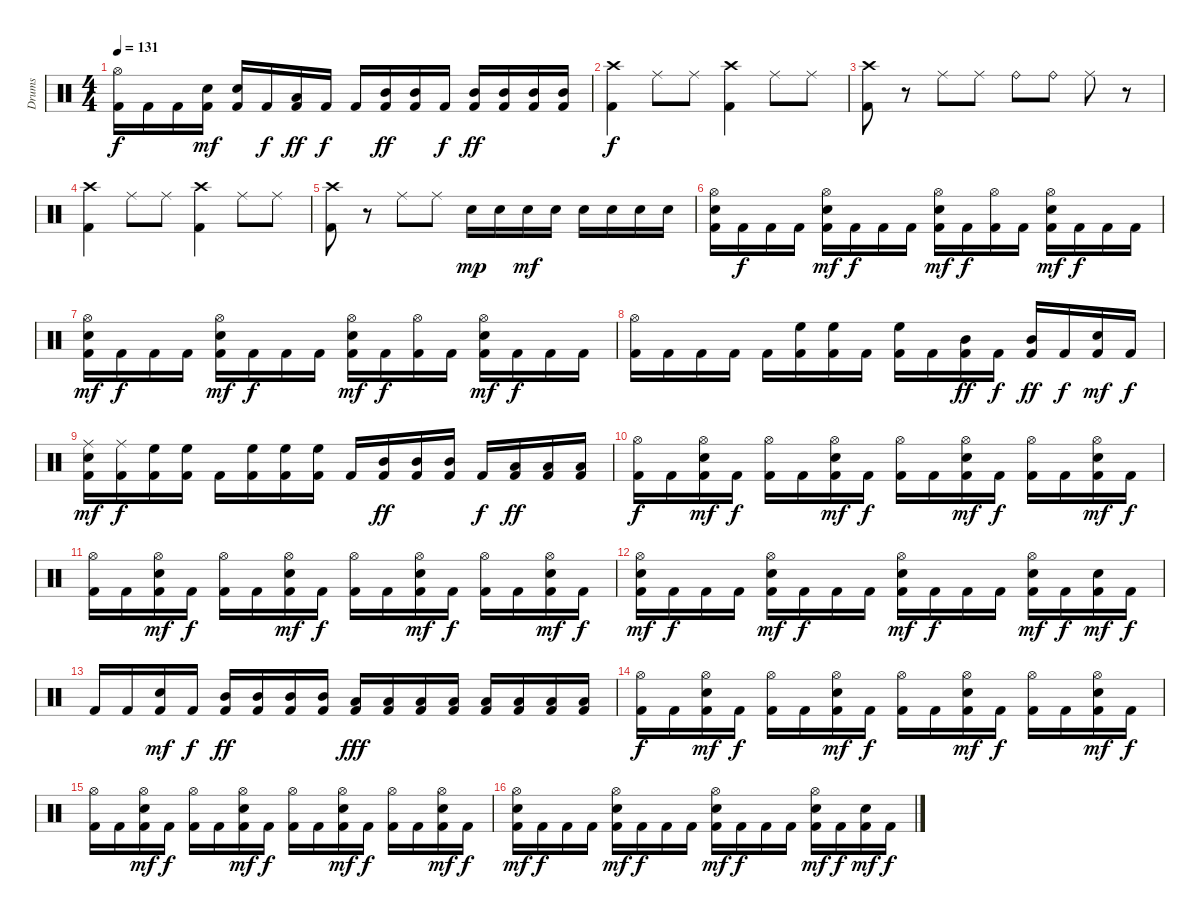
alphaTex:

\track ("Drums" "Drums") {instrument percussion}
\staff {score}
\articulation defaults
\ts (4 4)
\tempo 131
\clef neutral
\ks c
("Hi-Hat (open)" "Kick (hit) 2").16{dy f} "Kick (hit) 2".16 "Kick (hit) 2".16 ("Snare (hit) 2" "Kick (hit) 2").16{dy mf} ("Snare (hit) 2" "Kick (hit) 2").16 "Kick (hit) 2".16{dy f} ("Low Tom (hit)" "Kick (hit) 2").16{dy ff} "Kick (hit) 2".16{dy f} "Kick (hit) 2".16 ("Mid Tom (hit)" "Kick (hit) 2").16{dy ff} ("Mid Tom (hit)" "Kick (hit) 2").16 "Kick (hit) 2".16{dy f} ("Mid Tom (hit)" "Kick (hit) 2").16{dy ff} ("Mid Tom (hit)" "Kick (hit) 2").16 ("Mid Tom (hit)" "Kick (hit) 2").16 ("Mid Tom (hit)" "Kick (hit) 2").16 |
\section ("" "")
("Crash high (hit)" "Kick (hit) 2").4{dy f} "Ride (middle)".8 "Ride (middle)".8 ("Crash high (hit)" "Kick (hit) 2").4 "Ride (middle)".8 "Ride (middle)".8 |
("Crash high (hit)" "Kick (hit) 2").8 r.8 "Ride (middle)".8 "Ride (middle)".8 "Ride (bell)".8 "Ride (bell)".8 "Ride (middle)".8 r.8 |
("Crash high (hit)" "Kick (hit) 2").4 "Ride (middle)".8 "Ride (middle)".8 ("Crash high (hit)" "Kick (hit) 2").4 "Ride (middle)".8 "Ride (middle)".8 |
("Crash high (hit)" "Kick (hit) 2").8 r.8 "Ride (middle)".8 "Ride (middle)".8 "Snare (hit) 2".16{dy mp} "Snare (hit) 2".16 "Snare (hit) 2".16{dy mf} "Snare (hit) 2".16 "Snare (hit) 2".16 "Snare (hit) 2".16 "Snare (hit) 2".16 "Snare (hit) 2".16 |
\section ("" "")
("Hi-Hat (open)" "Snare (hit) 2" "Kick (hit) 2").16 "Kick (hit) 2".16{dy f} "Kick (hit) 2".16 "Kick (hit) 2".16 ("Hi-Hat (open)" "Snare (hit) 2" "Kick (hit) 2").16{dy mf} "Kick (hit) 2".16{dy f} "Kick (hit) 2".16 "Kick (hit) 2".16 ("Hi-Hat (open)" "Snare (hit) 2" "Kick (hit) 2").16{dy mf} "Kick (hit) 2".16{dy f} ("Hi-Hat (open)" "Kick (hit) 2").16 "Kick (hit) 2".16 ("Hi-Hat (open)" "Snare (hit) 2" "Kick (hit) 2").16{dy mf} "Kick (hit) 2".16{dy f} "Kick (hit) 2".16 "Kick (hit) 2".16 |
("Hi-Hat (open)" "Snare (hit) 2" "Kick (hit) 2").16{dy mf} "Kick (hit) 2".16{dy f} "Kick (hit) 2".16 "Kick (hit) 2".16 ("Hi-Hat (open)" "Snare (hit) 2" "Kick (hit) 2").16{dy mf} "Kick (hit) 2".16{dy f} "Kick (hit) 2".16 "Kick (hit) 2".16 ("Hi-Hat (open)" "Snare (hit) 2" "Kick (hit) 2").16{dy mf} "Kick (hit) 2".16{dy f} ("Hi-Hat (open)" "Kick (hit) 2").16 "Kick (hit) 2".16 ("Hi-Hat (open)" "Snare (hit) 2" "Kick (hit) 2").16{dy mf} "Kick (hit) 2".16{dy f} "Kick (hit) 2".16 "Kick (hit) 2".16 |
("Hi-Hat (open)" "Kick (hit) 2").16 "Kick (hit) 2".16 "Kick (hit) 2".16 "Kick (hit) 2".16 "Kick (hit) 2".16 ("High Floor Tom (hit)" "Kick (hit) 2").16 ("High Floor Tom (hit)" "Kick (hit) 2").16 "Kick (hit) 2".16 ("High Floor Tom (hit)" "Kick (hit) 2").16 "Kick (hit) 2".16 ("Mid Tom (hit)" "Kick (hit) 2").16{dy ff} "Kick (hit) 2".16{dy f} ("Mid Tom (hit)" "Kick (hit) 2").16{dy ff} "Kick (hit) 2".16{dy f} ("Snare (hit) 2" "Kick (hit) 2").16{dy mf} "Kick (hit) 2".16{dy f} |
("Ride (middle)" "Snare (hit) 2" "Kick (hit) 2").16{dy mf} ("Ride (middle)" "Kick (hit) 2").16{dy f} ("High Floor Tom (hit)" "Kick (hit) 2").16 ("High Floor Tom (hit)" "Kick (hit) 2").16 "Kick (hit) 2".16 ("High Floor Tom (hit)" "Kick (hit) 2").16 ("High Floor Tom (hit)" "Kick (hit) 2").16 ("High Floor Tom (hit)" "Kick (hit) 2").16 "Kick (hit) 2".16 ("Mid Tom (hit)" "Kick (hit) 2").16{dy ff} ("Mid Tom (hit)" "Kick (hit) 2").16 ("Mid Tom (hit)" "Kick (hit) 2").16 "Kick (hit) 2".16{dy f} ("Low Tom (hit)" "Kick (hit) 2").16{dy ff} ("Low Tom (hit)" "Kick (hit) 2").16 ("Low Tom (hit)" "Kick (hit) 2").16 |
\section ("" "")
("Hi-Hat (open)" "Kick (hit) 2").16{dy f} "Kick (hit) 2".16 ("Hi-Hat (open)" "Snare (hit) 2" "Kick (hit) 2").16{dy mf} "Kick (hit) 2".16{dy f} ("Hi-Hat (open)" "Kick (hit) 2").16 "Kick (hit) 2".16 ("Hi-Hat (open)" "Snare (hit) 2" "Kick (hit) 2").16{dy mf} "Kick (hit) 2".16{dy f} ("Hi-Hat (open)" "Kick (hit) 2").16 "Kick (hit) 2".16 ("Hi-Hat (open)" "Snare (hit) 2" "Kick (hit) 2").16{dy mf} "Kick (hit) 2".16{dy f} ("Hi-Hat (open)" "Kick (hit) 2").16 "Kick (hit) 2".16 ("Hi-Hat (open)" "Snare (hit) 2" "Kick (hit) 2").16{dy mf} "Kick (hit) 2".16{dy f} |
("Hi-Hat (open)" "Kick (hit) 2").16 "Kick (hit) 2".16 ("Hi-Hat (open)" "Snare (hit) 2" "Kick (hit) 2").16{dy mf} "Kick (hit) 2".16{dy f} ("Hi-Hat (open)" "Kick (hit) 2").16 "Kick (hit) 2".16 ("Hi-Hat (open)" "Snare (hit) 2" "Kick (hit) 2").16{dy mf} "Kick (hit) 2".16{dy f} ("Hi-Hat (open)" "Kick (hit) 2").16 "Kick (hit) 2".16 ("Hi-Hat (open)" "Snare (hit) 2" "Kick (hit) 2").16{dy mf} "Kick (hit) 2".16{dy f} ("Hi-Hat (open)" "Kick (hit) 2").16 "Kick (hit) 2".16 ("Hi-Hat (open)" "Snare (hit) 2" "Kick (hit) 2").16{dy mf} "Kick (hit) 2".16{dy f} |
("Hi-Hat (open)" "Snare (hit) 2" "Kick (hit) 2").16{dy mf} "Kick (hit) 2".16{dy f} "Kick (hit) 2".16 "Kick (hit) 2".16 ("Hi-Hat (open)" "Snare (hit) 2" "Kick (hit) 2").16{dy mf} "Kick (hit) 2".16{dy f} "Kick (hit) 2".16 "Kick (hit) 2".16 ("Hi-Hat (open)" "Snare (hit) 2" "Kick (hit) 2").16{dy mf} "Kick (hit) 2".16{dy f} "Kick (hit) 2".16 "Kick (hit) 2".16 ("Hi-Hat (open)" "Snare (hit) 2" "Kick (hit) 2").16{dy mf} "Kick (hit) 2".16{dy f} ("Snare (hit) 2" "Kick (hit) 2").16{dy mf} "Kick (hit) 2".16{dy f} |
"Kick (hit) 2".16 "Kick (hit) 2".16 ("Snare (hit) 2" "Kick (hit) 2").16{dy mf} "Kick (hit) 2".16{dy f} ("Mid Tom (hit)" "Kick (hit) 2").16{dy ff} ("Mid Tom (hit)" "Kick (hit) 2").16 ("Mid Tom (hit)" "Kick (hit) 2").16 ("Mid Tom (hit)" "Kick (hit) 2").16 ("Low Tom (hit)" "Kick (hit) 2").16{dy fff} ("Low Tom (hit)" "Kick (hit) 2").16 ("Low Tom (hit)" "Kick (hit) 2").16 ("Low Tom (hit)" "Kick (hit) 2").16 ("Low Floor Tom (hit)" "Kick (hit) 2").16 ("Low Floor Tom (hit)" "Kick (hit) 2").16 ("Low Floor Tom (hit)" "Kick (hit) 2").16 ("Low Floor Tom (hit)" "Kick (hit) 2").16 |
("Hi-Hat (open)" "Kick (hit) 2").16{dy f} "Kick (hit) 2".16 ("Hi-Hat (open)" "Snare (hit) 2" "Kick (hit) 2").16{dy mf} "Kick (hit) 2".16{dy f} ("Hi-Hat (open)" "Kick (hit) 2").16 "Kick (hit) 2".16 ("Hi-Hat (open)" "Snare (hit) 2" "Kick (hit) 2").16{dy mf} "Kick (hit) 2".16{dy f} ("Hi-Hat (open)" "Kick (hit) 2").16 "Kick (hit) 2".16 ("Hi-Hat (open)" "Snare (hit) 2" "Kick (hit) 2").16{dy mf} "Kick (hit) 2".16{dy f} ("Hi-Hat (open)" "Kick (hit) 2").16 "Kick (hit) 2".16 ("Hi-Hat (open)" "Snare (hit) 2" "Kick (hit) 2").16{dy mf} "Kick (hit) 2".16{dy f} |
("Hi-Hat (open)" "Kick (hit) 2").16 "Kick (hit) 2".16 ("Hi-Hat (open)" "Snare (hit) 2" "Kick (hit) 2").16{dy mf} "Kick (hit) 2".16{dy f} ("Hi-Hat (open)" "Kick (hit) 2").16 "Kick (hit) 2".16 ("Hi-Hat (open)" "Snare (hit) 2" "Kick (hit) 2").16{dy mf} "Kick (hit) 2".16{dy f} ("Hi-Hat (open)" "Kick (hit) 2").16 "Kick (hit) 2".16 ("Hi-Hat (open)" "Snare (hit) 2" "Kick (hit) 2").16{dy mf} "Kick (hit) 2".16{dy f} ("Hi-Hat (open)" "Kick (hit) 2").16 "Kick (hit) 2".16 ("Hi-Hat (open)" "Snare (hit) 2" "Kick (hit) 2").16{dy mf} "Kick (hit) 2".16{dy f} |
("Hi-Hat (open)" "Snare (hit) 2" "Kick (hit) 2").16{dy mf} "Kick (hit) 2".16{dy f} "Kick (hit) 2".16 "Kick (hit) 2".16 ("Hi-Hat (open)" "Snare (hit) 2" "Kick (hit) 2").16{dy mf} "Kick (hit) 2".16{dy f} "Kick (hit) 2".16 "Kick (hit) 2".16 ("Hi-Hat (open)" "Snare (hit) 2" "Kick (hit) 2").16{dy mf} "Kick (hit) 2".16{dy f} "Kick (hit) 2".16 "Kick (hit) 2".16 ("Hi-Hat (open)" "Snare (hit) 2" "Kick (hit) 2").16{dy mf} "Kick (hit) 2".16{dy f} ("Snare (hit) 2" "Kick (hit) 2").16{dy mf} "Kick (hit) 2".16{dy f}
